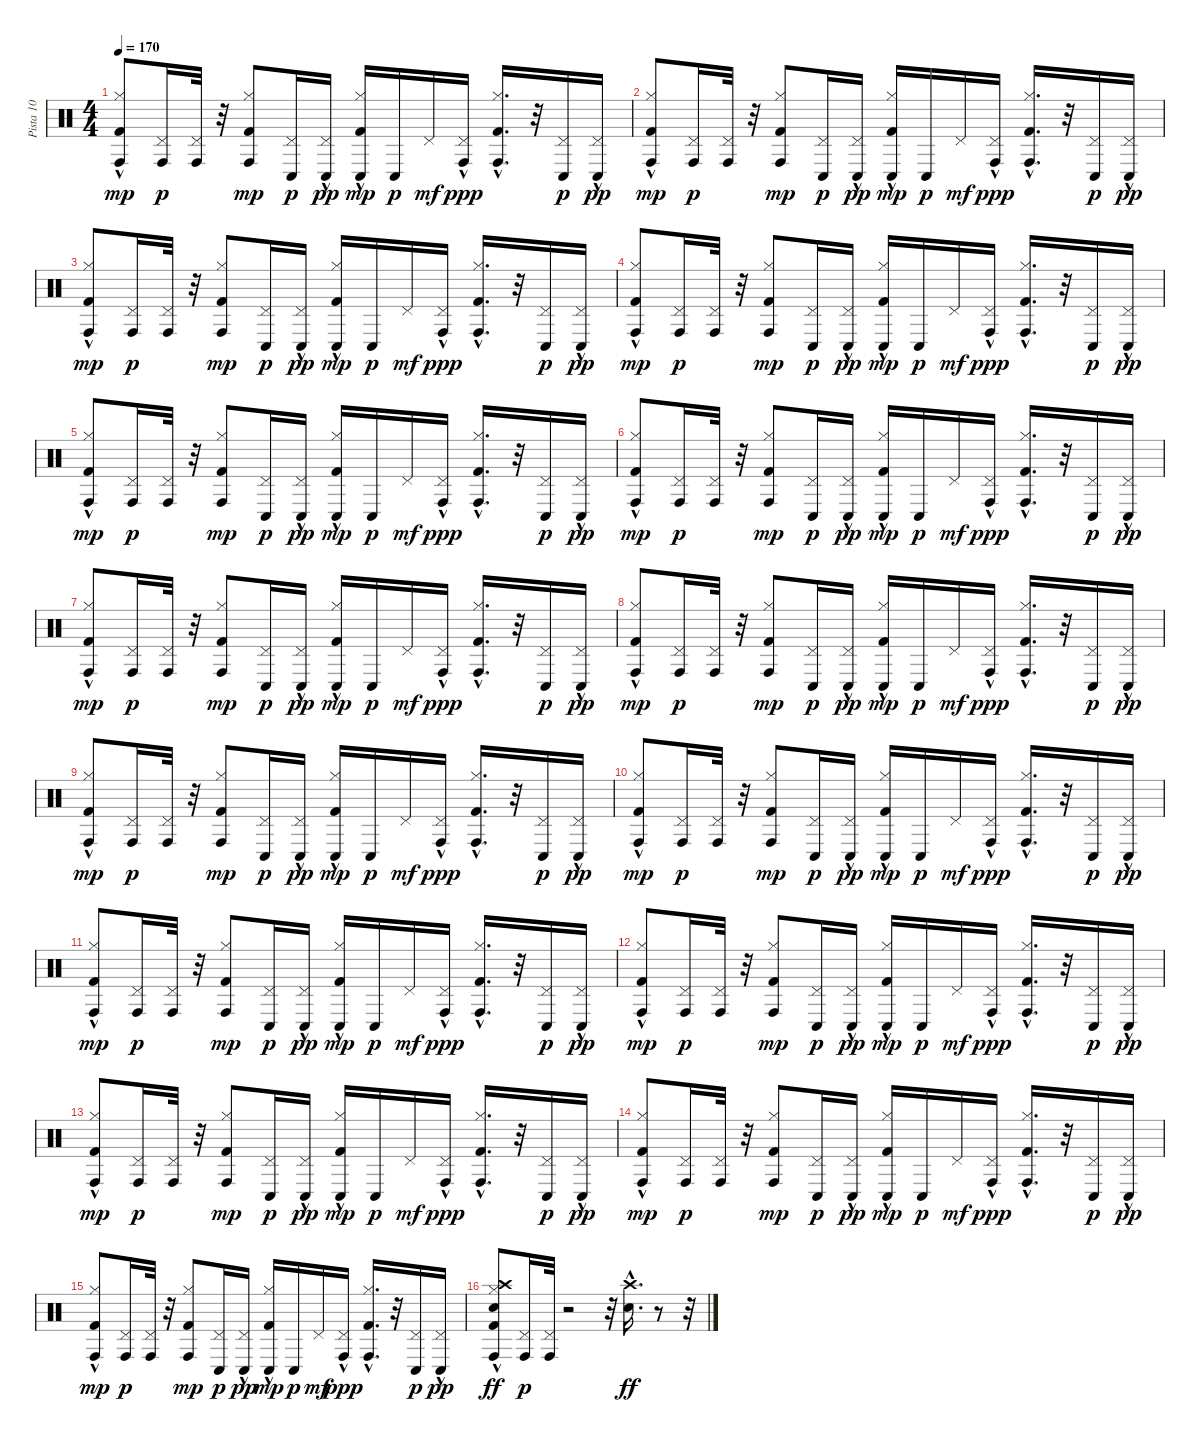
\track ("Pista 10" "Pista 10") {instrument percussion}
\staff {score}
\articulation defaults
\ts (4 4)
\tempo 170
\clef neutral
\ks c
("Kick (hit) 2" "Hi-Hat (closed)"{hac} "Conga high (hit)").8{dy mp} ("Pedal Hi-Hat (hit)" "Conga high (hit)").16{dy p} ("Pedal Hi-Hat (hit)" "Conga high (hit)").32 r.32 ("Kick (hit) 2" "Hi-Hat (closed)" "Conga high (hit)").8{dy mp} ("Pedal Hi-Hat (hit)" "Conga low (hit)").16{dy p} ("Pedal Hi-Hat (hit)"{hac} "Conga low (hit)").16{dy pp} ("Kick (hit) 2" "Hi-Hat (closed)"{hac} "Conga low (hit)").16{dy mp} "Conga low (hit)".16{dy p} "Pedal Hi-Hat (hit)".16{dy mf} ("Pedal Hi-Hat (hit)"{hac} "Conga high (hit)").16{dy ppp} ("Kick (hit) 2" "Hi-Hat (closed)"{hac} "Conga high (hit)").16{d} r.32 ("Pedal Hi-Hat (hit)" "Conga low (hit)").16{dy p} ("Pedal Hi-Hat (hit)"{hac} "Conga low (hit)").16{dy pp} |
("Kick (hit) 2" "Hi-Hat (closed)"{hac} "Conga high (hit)").8{dy mp} ("Pedal Hi-Hat (hit)" "Conga high (hit)").16{dy p} ("Pedal Hi-Hat (hit)" "Conga high (hit)").32 r.32 ("Kick (hit) 2" "Hi-Hat (closed)" "Conga high (hit)").8{dy mp} ("Pedal Hi-Hat (hit)" "Conga low (hit)").16{dy p} ("Pedal Hi-Hat (hit)"{hac} "Conga low (hit)").16{dy pp} ("Kick (hit) 2" "Hi-Hat (closed)"{hac} "Conga low (hit)").16{dy mp} "Conga low (hit)".16{dy p} "Pedal Hi-Hat (hit)".16{dy mf} ("Pedal Hi-Hat (hit)"{hac} "Conga high (hit)").16{dy ppp} ("Kick (hit) 2" "Hi-Hat (closed)"{hac} "Conga high (hit)").16{d} r.32 ("Pedal Hi-Hat (hit)" "Conga low (hit)").16{dy p} ("Pedal Hi-Hat (hit)"{hac} "Conga low (hit)").16{dy pp} |
("Kick (hit) 2" "Hi-Hat (closed)"{hac} "Conga high (hit)").8{dy mp} ("Pedal Hi-Hat (hit)" "Conga high (hit)").16{dy p} ("Pedal Hi-Hat (hit)" "Conga high (hit)").32 r.32 ("Kick (hit) 2" "Hi-Hat (closed)" "Conga high (hit)").8{dy mp} ("Pedal Hi-Hat (hit)" "Conga low (hit)").16{dy p} ("Pedal Hi-Hat (hit)"{hac} "Conga low (hit)").16{dy pp} ("Kick (hit) 2" "Hi-Hat (closed)"{hac} "Conga low (hit)").16{dy mp} "Conga low (hit)".16{dy p} "Pedal Hi-Hat (hit)".16{dy mf} ("Pedal Hi-Hat (hit)"{hac} "Conga high (hit)").16{dy ppp} ("Kick (hit) 2" "Hi-Hat (closed)"{hac} "Conga high (hit)").16{d} r.32 ("Pedal Hi-Hat (hit)" "Conga low (hit)").16{dy p} ("Pedal Hi-Hat (hit)"{hac} "Conga low (hit)").16{dy pp} |
("Kick (hit) 2" "Hi-Hat (closed)"{hac} "Conga high (hit)").8{dy mp} ("Pedal Hi-Hat (hit)" "Conga high (hit)").16{dy p} ("Pedal Hi-Hat (hit)" "Conga high (hit)").32 r.32 ("Kick (hit) 2" "Hi-Hat (closed)" "Conga high (hit)").8{dy mp} ("Pedal Hi-Hat (hit)" "Conga low (hit)").16{dy p} ("Pedal Hi-Hat (hit)"{hac} "Conga low (hit)").16{dy pp} ("Kick (hit) 2" "Hi-Hat (closed)"{hac} "Conga low (hit)").16{dy mp} "Conga low (hit)".16{dy p} "Pedal Hi-Hat (hit)".16{dy mf} ("Pedal Hi-Hat (hit)"{hac} "Conga high (hit)").16{dy ppp} ("Kick (hit) 2" "Hi-Hat (closed)"{hac} "Conga high (hit)").16{d} r.32 ("Pedal Hi-Hat (hit)" "Conga low (hit)").16{dy p} ("Pedal Hi-Hat (hit)"{hac} "Conga low (hit)").16{dy pp} |
("Kick (hit) 2" "Hi-Hat (closed)"{hac} "Conga high (hit)").8{dy mp} ("Pedal Hi-Hat (hit)" "Conga high (hit)").16{dy p} ("Pedal Hi-Hat (hit)" "Conga high (hit)").32 r.32 ("Kick (hit) 2" "Hi-Hat (closed)" "Conga high (hit)").8{dy mp} ("Pedal Hi-Hat (hit)" "Conga low (hit)").16{dy p} ("Pedal Hi-Hat (hit)"{hac} "Conga low (hit)").16{dy pp} ("Kick (hit) 2" "Hi-Hat (closed)"{hac} "Conga low (hit)").16{dy mp} "Conga low (hit)".16{dy p} "Pedal Hi-Hat (hit)".16{dy mf} ("Pedal Hi-Hat (hit)"{hac} "Conga high (hit)").16{dy ppp} ("Kick (hit) 2" "Hi-Hat (closed)"{hac} "Conga high (hit)").16{d} r.32 ("Pedal Hi-Hat (hit)" "Conga low (hit)").16{dy p} ("Pedal Hi-Hat (hit)"{hac} "Conga low (hit)").16{dy pp} |
("Kick (hit) 2" "Hi-Hat (closed)"{hac} "Conga high (hit)").8{dy mp} ("Pedal Hi-Hat (hit)" "Conga high (hit)").16{dy p} ("Pedal Hi-Hat (hit)" "Conga high (hit)").32 r.32 ("Kick (hit) 2" "Hi-Hat (closed)" "Conga high (hit)").8{dy mp} ("Pedal Hi-Hat (hit)" "Conga low (hit)").16{dy p} ("Pedal Hi-Hat (hit)"{hac} "Conga low (hit)").16{dy pp} ("Kick (hit) 2" "Hi-Hat (closed)"{hac} "Conga low (hit)").16{dy mp} "Conga low (hit)".16{dy p} "Pedal Hi-Hat (hit)".16{dy mf} ("Pedal Hi-Hat (hit)"{hac} "Conga high (hit)").16{dy ppp} ("Kick (hit) 2" "Hi-Hat (closed)"{hac} "Conga high (hit)").16{d} r.32 ("Pedal Hi-Hat (hit)" "Conga low (hit)").16{dy p} ("Pedal Hi-Hat (hit)"{hac} "Conga low (hit)").16{dy pp} |
("Kick (hit) 2" "Hi-Hat (closed)"{hac} "Conga high (hit)").8{dy mp} ("Pedal Hi-Hat (hit)" "Conga high (hit)").16{dy p} ("Pedal Hi-Hat (hit)" "Conga high (hit)").32 r.32 ("Kick (hit) 2" "Hi-Hat (closed)" "Conga high (hit)").8{dy mp} ("Pedal Hi-Hat (hit)" "Conga low (hit)").16{dy p} ("Pedal Hi-Hat (hit)"{hac} "Conga low (hit)").16{dy pp} ("Kick (hit) 2" "Hi-Hat (closed)"{hac} "Conga low (hit)").16{dy mp} "Conga low (hit)".16{dy p} "Pedal Hi-Hat (hit)".16{dy mf} ("Pedal Hi-Hat (hit)"{hac} "Conga high (hit)").16{dy ppp} ("Kick (hit) 2" "Hi-Hat (closed)"{hac} "Conga high (hit)").16{d} r.32 ("Pedal Hi-Hat (hit)" "Conga low (hit)").16{dy p} ("Pedal Hi-Hat (hit)"{hac} "Conga low (hit)").16{dy pp} |
("Kick (hit) 2" "Hi-Hat (closed)"{hac} "Conga high (hit)").8{dy mp} ("Pedal Hi-Hat (hit)" "Conga high (hit)").16{dy p} ("Pedal Hi-Hat (hit)" "Conga high (hit)").32 r.32 ("Kick (hit) 2" "Hi-Hat (closed)" "Conga high (hit)").8{dy mp} ("Pedal Hi-Hat (hit)" "Conga low (hit)").16{dy p} ("Pedal Hi-Hat (hit)"{hac} "Conga low (hit)").16{dy pp} ("Kick (hit) 2" "Hi-Hat (closed)"{hac} "Conga low (hit)").16{dy mp} "Conga low (hit)".16{dy p} "Pedal Hi-Hat (hit)".16{dy mf} ("Pedal Hi-Hat (hit)"{hac} "Conga high (hit)").16{dy ppp} ("Kick (hit) 2" "Hi-Hat (closed)"{hac} "Conga high (hit)").16{d} r.32 ("Pedal Hi-Hat (hit)" "Conga low (hit)").16{dy p} ("Pedal Hi-Hat (hit)"{hac} "Conga low (hit)").16{dy pp} |
("Kick (hit) 2" "Hi-Hat (closed)"{hac} "Conga high (hit)").8{dy mp} ("Pedal Hi-Hat (hit)" "Conga high (hit)").16{dy p} ("Pedal Hi-Hat (hit)" "Conga high (hit)").32 r.32 ("Kick (hit) 2" "Hi-Hat (closed)" "Conga high (hit)").8{dy mp} ("Pedal Hi-Hat (hit)" "Conga low (hit)").16{dy p} ("Pedal Hi-Hat (hit)"{hac} "Conga low (hit)").16{dy pp} ("Kick (hit) 2" "Hi-Hat (closed)"{hac} "Conga low (hit)").16{dy mp} "Conga low (hit)".16{dy p} "Pedal Hi-Hat (hit)".16{dy mf} ("Pedal Hi-Hat (hit)"{hac} "Conga high (hit)").16{dy ppp} ("Kick (hit) 2" "Hi-Hat (closed)"{hac} "Conga high (hit)").16{d} r.32 ("Pedal Hi-Hat (hit)" "Conga low (hit)").16{dy p} ("Pedal Hi-Hat (hit)"{hac} "Conga low (hit)").16{dy pp} |
("Kick (hit) 2" "Hi-Hat (closed)"{hac} "Conga high (hit)").8{dy mp} ("Pedal Hi-Hat (hit)" "Conga high (hit)").16{dy p} ("Pedal Hi-Hat (hit)" "Conga high (hit)").32 r.32 ("Kick (hit) 2" "Hi-Hat (closed)" "Conga high (hit)").8{dy mp} ("Pedal Hi-Hat (hit)" "Conga low (hit)").16{dy p} ("Pedal Hi-Hat (hit)"{hac} "Conga low (hit)").16{dy pp} ("Kick (hit) 2" "Hi-Hat (closed)"{hac} "Conga low (hit)").16{dy mp} "Conga low (hit)".16{dy p} "Pedal Hi-Hat (hit)".16{dy mf} ("Pedal Hi-Hat (hit)"{hac} "Conga high (hit)").16{dy ppp} ("Kick (hit) 2" "Hi-Hat (closed)"{hac} "Conga high (hit)").16{d} r.32 ("Pedal Hi-Hat (hit)" "Conga low (hit)").16{dy p} ("Pedal Hi-Hat (hit)"{hac} "Conga low (hit)").16{dy pp} |
("Kick (hit) 2" "Hi-Hat (closed)"{hac} "Conga high (hit)").8{dy mp} ("Pedal Hi-Hat (hit)" "Conga high (hit)").16{dy p} ("Pedal Hi-Hat (hit)" "Conga high (hit)").32 r.32 ("Kick (hit) 2" "Hi-Hat (closed)" "Conga high (hit)").8{dy mp} ("Pedal Hi-Hat (hit)" "Conga low (hit)").16{dy p} ("Pedal Hi-Hat (hit)"{hac} "Conga low (hit)").16{dy pp} ("Kick (hit) 2" "Hi-Hat (closed)"{hac} "Conga low (hit)").16{dy mp} "Conga low (hit)".16{dy p} "Pedal Hi-Hat (hit)".16{dy mf} ("Pedal Hi-Hat (hit)"{hac} "Conga high (hit)").16{dy ppp} ("Kick (hit) 2" "Hi-Hat (closed)"{hac} "Conga high (hit)").16{d} r.32 ("Pedal Hi-Hat (hit)" "Conga low (hit)").16{dy p} ("Pedal Hi-Hat (hit)"{hac} "Conga low (hit)").16{dy pp} |
("Kick (hit) 2" "Hi-Hat (closed)"{hac} "Conga high (hit)").8{dy mp} ("Pedal Hi-Hat (hit)" "Conga high (hit)").16{dy p} ("Pedal Hi-Hat (hit)" "Conga high (hit)").32 r.32 ("Kick (hit) 2" "Hi-Hat (closed)" "Conga high (hit)").8{dy mp} ("Pedal Hi-Hat (hit)" "Conga low (hit)").16{dy p} ("Pedal Hi-Hat (hit)"{hac} "Conga low (hit)").16{dy pp} ("Kick (hit) 2" "Hi-Hat (closed)"{hac} "Conga low (hit)").16{dy mp} "Conga low (hit)".16{dy p} "Pedal Hi-Hat (hit)".16{dy mf} ("Pedal Hi-Hat (hit)"{hac} "Conga high (hit)").16{dy ppp} ("Kick (hit) 2" "Hi-Hat (closed)"{hac} "Conga high (hit)").16{d} r.32 ("Pedal Hi-Hat (hit)" "Conga low (hit)").16{dy p} ("Pedal Hi-Hat (hit)"{hac} "Conga low (hit)").16{dy pp} |
("Kick (hit) 2" "Hi-Hat (closed)"{hac} "Conga high (hit)").8{dy mp} ("Pedal Hi-Hat (hit)" "Conga high (hit)").16{dy p} ("Pedal Hi-Hat (hit)" "Conga high (hit)").32 r.32 ("Kick (hit) 2" "Hi-Hat (closed)" "Conga high (hit)").8{dy mp} ("Pedal Hi-Hat (hit)" "Conga low (hit)").16{dy p} ("Pedal Hi-Hat (hit)"{hac} "Conga low (hit)").16{dy pp} ("Kick (hit) 2" "Hi-Hat (closed)"{hac} "Conga low (hit)").16{dy mp} "Conga low (hit)".16{dy p} "Pedal Hi-Hat (hit)".16{dy mf} ("Pedal Hi-Hat (hit)"{hac} "Conga high (hit)").16{dy ppp} ("Kick (hit) 2" "Hi-Hat (closed)"{hac} "Conga high (hit)").16{d} r.32 ("Pedal Hi-Hat (hit)" "Conga low (hit)").16{dy p} ("Pedal Hi-Hat (hit)"{hac} "Conga low (hit)").16{dy pp} |
("Kick (hit) 2" "Hi-Hat (closed)"{hac} "Conga high (hit)").8{dy mp} ("Pedal Hi-Hat (hit)" "Conga high (hit)").16{dy p} ("Pedal Hi-Hat (hit)" "Conga high (hit)").32 r.32 ("Kick (hit) 2" "Hi-Hat (closed)" "Conga high (hit)").8{dy mp} ("Pedal Hi-Hat (hit)" "Conga low (hit)").16{dy p} ("Pedal Hi-Hat (hit)"{hac} "Conga low (hit)").16{dy pp} ("Kick (hit) 2" "Hi-Hat (closed)"{hac} "Conga low (hit)").16{dy mp} "Conga low (hit)".16{dy p} "Pedal Hi-Hat (hit)".16{dy mf} ("Pedal Hi-Hat (hit)"{hac} "Conga high (hit)").16{dy ppp} ("Kick (hit) 2" "Hi-Hat (closed)"{hac} "Conga high (hit)").16{d} r.32 ("Pedal Hi-Hat (hit)" "Conga low (hit)").16{dy p} ("Pedal Hi-Hat (hit)"{hac} "Conga low (hit)").16{dy pp} |
("Kick (hit) 2" "Hi-Hat (closed)"{hac} "Conga high (hit)").8{dy mp} ("Pedal Hi-Hat (hit)" "Conga high (hit)").16{dy p} ("Pedal Hi-Hat (hit)" "Conga high (hit)").32 r.32 ("Kick (hit) 2" "Hi-Hat (closed)" "Conga high (hit)").8{dy mp} ("Pedal Hi-Hat (hit)" "Conga low (hit)").16{dy p} ("Pedal Hi-Hat (hit)"{hac} "Conga low (hit)").16{dy pp} ("Kick (hit) 2" "Hi-Hat (closed)"{hac} "Conga low (hit)").16{dy mp} "Conga low (hit)".16{dy p} "Pedal Hi-Hat (hit)".16{dy mf} ("Pedal Hi-Hat (hit)"{hac} "Conga high (hit)").16{dy ppp} ("Kick (hit) 2" "Hi-Hat (closed)"{hac} "Conga high (hit)").16{d} r.32 ("Pedal Hi-Hat (hit)" "Conga low (hit)").16{dy p} ("Pedal Hi-Hat (hit)"{hac} "Conga low (hit)").16{dy pp} |
("Kick (hit) 2" "Hi-Hat (closed)"{hac} "Conga high (hit)" "Crash high (hit)" "Snare (hit) 2").8{dy ff} ("Pedal Hi-Hat (hit)" "Conga high (hit)").16{dy p} ("Pedal Hi-Hat (hit)" "Conga high (hit)").32 r.2 r.32 ("Crash high (hit)" "Snare (hit) 2"{hac}).16{d dy ff} r.8 r.32
